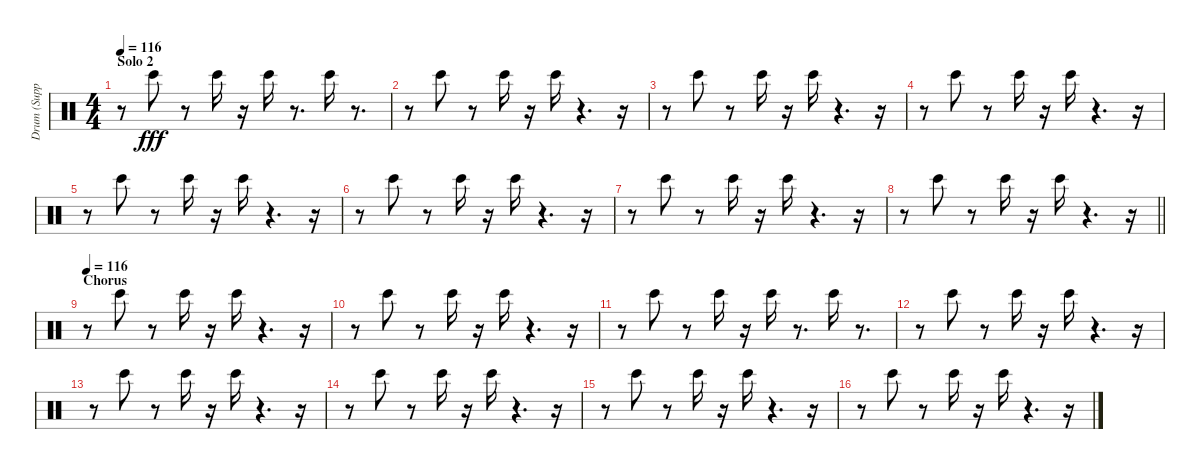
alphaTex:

\track ("Drum (Support)" "Drum (Supp") {instrument percussion}
\staff {score}
\articulation defaults
\ts (4 4)
\section ("" "Solo 2")
\tempo 116
\clef neutral
\ks c
r.8{dy fff} "Bongo High (hit)".8 r.8 "Bongo High (hit)".16 r.16 "Bongo High (hit)".16 r.8{d} "Bongo High (hit)".16 r.8{d} |
r.8 "Bongo High (hit)".8 r.8 "Bongo High (hit)".16 r.16 "Bongo High (hit)".16 r.4{d} r.16 |
r.8 "Bongo High (hit)".8 r.8 "Bongo High (hit)".16 r.16 "Bongo High (hit)".16 r.4{d} r.16 |
r.8 "Bongo High (hit)".8 r.8 "Bongo High (hit)".16 r.16 "Bongo High (hit)".16 r.4{d} r.16 |
r.8 "Bongo High (hit)".8 r.8 "Bongo High (hit)".16 r.16 "Bongo High (hit)".16 r.4{d} r.16 |
r.8 "Bongo High (hit)".8 r.8 "Bongo High (hit)".16 r.16 "Bongo High (hit)".16 r.4{d} r.16 |
r.8 "Bongo High (hit)".8 r.8 "Bongo High (hit)".16 r.16 "Bongo High (hit)".16 r.4{d} r.16 |
\barLineRight lightlight
r.8 "Bongo High (hit)".8 r.8 "Bongo High (hit)".16 r.16 "Bongo High (hit)".16 r.4{d} r.16 |
\section ("" "Chorus")
\tempo 116
r.8 "Bongo High (hit)".8 r.8 "Bongo High (hit)".16 r.16 "Bongo High (hit)".16 r.4{d} r.16 |
r.8 "Bongo High (hit)".8 r.8 "Bongo High (hit)".16 r.16 "Bongo High (hit)".16 r.4{d} r.16 |
r.8 "Bongo High (hit)".8 r.8 "Bongo High (hit)".16 r.16 "Bongo High (hit)".16 r.8{d} "Bongo High (hit)".16 r.8{d} |
r.8 "Bongo High (hit)".8 r.8 "Bongo High (hit)".16 r.16 "Bongo High (hit)".16 r.4{d} r.16 |
r.8 "Bongo High (hit)".8 r.8 "Bongo High (hit)".16 r.16 "Bongo High (hit)".16 r.4{d} r.16 |
r.8 "Bongo High (hit)".8 r.8 "Bongo High (hit)".16 r.16 "Bongo High (hit)".16 r.4{d} r.16 |
r.8 "Bongo High (hit)".8 r.8 "Bongo High (hit)".16 r.16 "Bongo High (hit)".16 r.4{d} r.16 |
r.8 "Bongo High (hit)".8 r.8 "Bongo High (hit)".16 r.16 "Bongo High (hit)".16 r.4{d} r.16
